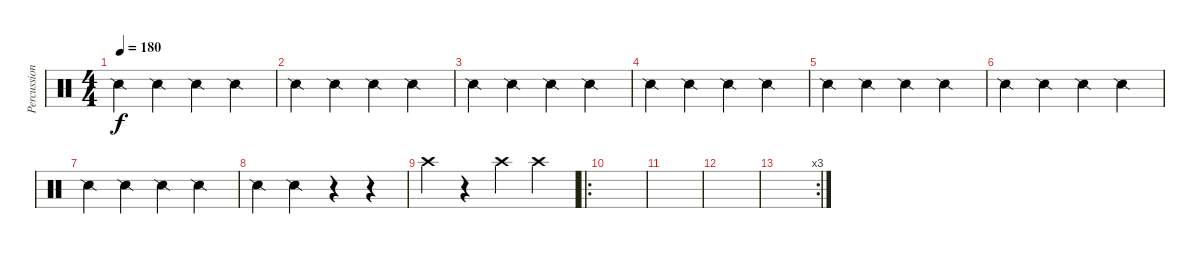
\track ("Percussion" "Percussion") {instrument percussion}
\staff {score}
\articulation defaults
\ts (4 4)
\tempo 180
\clef neutral
\ks c "Snare (side stick) 2".4{dy f} "Snare (side stick) 2".4 "Snare (side stick) 2".4 "Snare (side stick) 2".4
|
"Snare (side stick) 2".4 "Snare (side stick) 2".4 "Snare (side stick) 2".4 "Snare (side stick) 2".4 |
"Snare (side stick) 2".4 "Snare (side stick) 2".4 "Snare (side stick) 2".4 "Snare (side stick) 2".4 |
"Snare (side stick) 2".4 "Snare (side stick) 2".4 "Snare (side stick) 2".4 "Snare (side stick) 2".4 |
"Snare (side stick) 2".4 "Snare (side stick) 2".4 "Snare (side stick) 2".4 "Snare (side stick) 2".4 |
"Snare (side stick) 2".4 "Snare (side stick) 2".4 "Snare (side stick) 2".4 "Snare (side stick) 2".4 |
"Snare (side stick) 2".4 "Snare (side stick) 2".4 "Snare (side stick) 2".4 "Snare (side stick) 2".4 |
"Snare (side stick) 2".4 "Snare (side stick) 2".4 r.4 r.4 |
"Crash high (hit)".4 r.4 "Crash high (hit)".4 "Crash high (hit)".4 |
\ro
|
|
|
\rc 3
